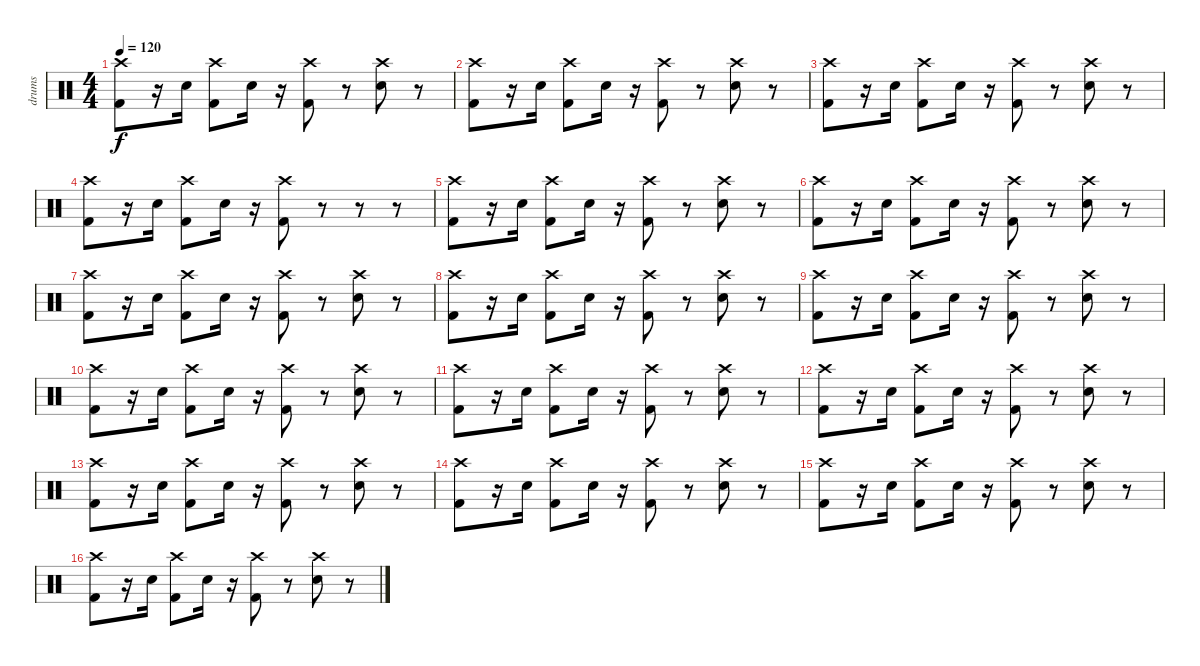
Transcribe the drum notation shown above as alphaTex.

\track ("drums" "drums") {instrument percussion}
\staff {score}
\articulation defaults
\ts (4 4)
\tempo 120
\clef neutral
\ks c
("Crash high (hit)" "Kick (hit) 2").8{dy f} r.16 "Snare (hit) 2".16 ("Crash high (hit)" "Kick (hit) 2").8 "Snare (hit) 2".16 r.16 ("Crash high (hit)" "Kick (hit) 2").8 r.8 ("Crash high (hit)" "Snare (hit) 2").8 r.8 |
("Crash high (hit)" "Kick (hit) 2").8 r.16 "Snare (hit) 2".16 ("Crash high (hit)" "Kick (hit) 2").8 "Snare (hit) 2".16 r.16 ("Crash high (hit)" "Kick (hit) 2").8 r.8 ("Crash high (hit)" "Snare (hit) 2").8 r.8 |
("Crash high (hit)" "Kick (hit) 2").8 r.16 "Snare (hit) 2".16 ("Crash high (hit)" "Kick (hit) 2").8 "Snare (hit) 2".16 r.16 ("Crash high (hit)" "Kick (hit) 2").8 r.8 ("Crash high (hit)" "Snare (hit) 2").8 r.8 |
("Crash high (hit)" "Kick (hit) 2").8 r.16 "Snare (hit) 2".16 ("Crash high (hit)" "Kick (hit) 2").8 "Snare (hit) 2".16 r.16 ("Crash high (hit)" "Kick (hit) 2").8 r.8 r.8 r.8 |
("Crash high (hit)" "Kick (hit) 2").8 r.16 "Snare (hit) 2".16 ("Crash high (hit)" "Kick (hit) 2").8 "Snare (hit) 2".16 r.16 ("Crash high (hit)" "Kick (hit) 2").8 r.8 ("Crash high (hit)" "Snare (hit) 2").8 r.8 |
("Crash high (hit)" "Kick (hit) 2").8 r.16 "Snare (hit) 2".16 ("Crash high (hit)" "Kick (hit) 2").8 "Snare (hit) 2".16 r.16 ("Crash high (hit)" "Kick (hit) 2").8 r.8 ("Crash high (hit)" "Snare (hit) 2").8 r.8 |
("Crash high (hit)" "Kick (hit) 2").8 r.16 "Snare (hit) 2".16 ("Crash high (hit)" "Kick (hit) 2").8 "Snare (hit) 2".16 r.16 ("Crash high (hit)" "Kick (hit) 2").8 r.8 ("Crash high (hit)" "Snare (hit) 2").8 r.8 |
("Crash high (hit)" "Kick (hit) 2").8 r.16 "Snare (hit) 2".16 ("Crash high (hit)" "Kick (hit) 2").8 "Snare (hit) 2".16 r.16 ("Crash high (hit)" "Kick (hit) 2").8 r.8 ("Crash high (hit)" "Snare (hit) 2").8 r.8 |
("Crash high (hit)" "Kick (hit) 2").8 r.16 "Snare (hit) 2".16 ("Crash high (hit)" "Kick (hit) 2").8 "Snare (hit) 2".16 r.16 ("Crash high (hit)" "Kick (hit) 2").8 r.8 ("Crash high (hit)" "Snare (hit) 2").8 r.8 |
("Crash high (hit)" "Kick (hit) 2").8 r.16 "Snare (hit) 2".16 ("Crash high (hit)" "Kick (hit) 2").8 "Snare (hit) 2".16 r.16 ("Crash high (hit)" "Kick (hit) 2").8 r.8 ("Crash high (hit)" "Snare (hit) 2").8 r.8 |
("Crash high (hit)" "Kick (hit) 2").8 r.16 "Snare (hit) 2".16 ("Crash high (hit)" "Kick (hit) 2").8 "Snare (hit) 2".16 r.16 ("Crash high (hit)" "Kick (hit) 2").8 r.8 ("Crash high (hit)" "Snare (hit) 2").8 r.8 |
("Crash high (hit)" "Kick (hit) 2").8 r.16 "Snare (hit) 2".16 ("Crash high (hit)" "Kick (hit) 2").8 "Snare (hit) 2".16 r.16 ("Crash high (hit)" "Kick (hit) 2").8 r.8 ("Crash high (hit)" "Snare (hit) 2").8 r.8 |
("Crash high (hit)" "Kick (hit) 2").8 r.16 "Snare (hit) 2".16 ("Crash high (hit)" "Kick (hit) 2").8 "Snare (hit) 2".16 r.16 ("Crash high (hit)" "Kick (hit) 2").8 r.8 ("Crash high (hit)" "Snare (hit) 2").8 r.8 |
("Crash high (hit)" "Kick (hit) 2").8 r.16 "Snare (hit) 2".16 ("Crash high (hit)" "Kick (hit) 2").8 "Snare (hit) 2".16 r.16 ("Crash high (hit)" "Kick (hit) 2").8 r.8 ("Crash high (hit)" "Snare (hit) 2").8 r.8 |
("Crash high (hit)" "Kick (hit) 2").8 r.16 "Snare (hit) 2".16 ("Crash high (hit)" "Kick (hit) 2").8 "Snare (hit) 2".16 r.16 ("Crash high (hit)" "Kick (hit) 2").8 r.8 ("Crash high (hit)" "Snare (hit) 2").8 r.8 |
("Crash high (hit)" "Kick (hit) 2").8 r.16 "Snare (hit) 2".16 ("Crash high (hit)" "Kick (hit) 2").8 "Snare (hit) 2".16 r.16 ("Crash high (hit)" "Kick (hit) 2").8 r.8 ("Crash high (hit)" "Snare (hit) 2").8 r.8
